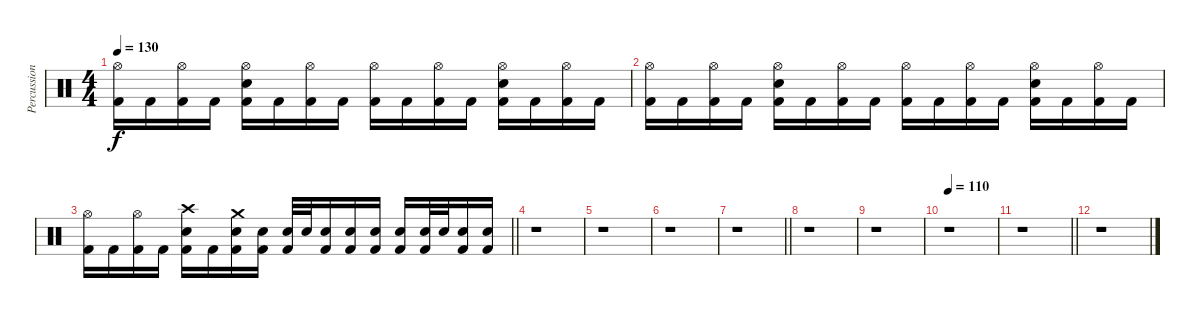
\track ("Percussion" "Percussion") {instrument percussion}
\staff {score}
\articulation defaults
\ts (4 4)
\tempo 130
\clef neutral
\ks c
("Hi-Hat (open)" "Kick (hit) 2").16{dy f} "Kick (hit) 2".16 ("Hi-Hat (open)" "Kick (hit) 2").16 "Kick (hit) 2".16 ("Hi-Hat (open)" "Electric Snare (hit)" "Kick (hit) 2").16 "Kick (hit) 2".16 ("Hi-Hat (open)" "Kick (hit) 2").16 "Kick (hit) 2".16 ("Hi-Hat (open)" "Kick (hit) 2").16 "Kick (hit) 2".16 ("Hi-Hat (open)" "Kick (hit) 2").16 "Kick (hit) 2".16 ("Hi-Hat (open)" "Electric Snare (hit)" "Kick (hit) 2").16 "Kick (hit) 2".16 ("Hi-Hat (open)" "Kick (hit) 2").16 "Kick (hit) 2".16 |
("Hi-Hat (open)" "Kick (hit) 2").16 "Kick (hit) 2".16 ("Hi-Hat (open)" "Kick (hit) 2").16 "Kick (hit) 2".16 ("Hi-Hat (open)" "Electric Snare (hit)" "Kick (hit) 2").16 "Kick (hit) 2".16 ("Hi-Hat (open)" "Kick (hit) 2").16 "Kick (hit) 2".16 ("Hi-Hat (open)" "Kick (hit) 2").16 "Kick (hit) 2".16 ("Hi-Hat (open)" "Kick (hit) 2").16 "Kick (hit) 2".16 ("Hi-Hat (open)" "Electric Snare (hit)" "Kick (hit) 2").16 "Kick (hit) 2".16 ("Hi-Hat (open)" "Kick (hit) 2").16 "Kick (hit) 2".16 |
\barLineRight lightlight
("Hi-Hat (open)" "Kick (hit) 2").16 "Kick (hit) 2".16 ("Hi-Hat (open)" "Kick (hit) 2").16 "Kick (hit) 2".16 ("Crash high (hit)" "Electric Snare (hit)" "Kick (hit) 2").16 "Kick (hit) 2".16 ("Crash medium (hit)" "Electric Snare (hit)" "Kick (hit) 2").16 ("Electric Snare (hit)" "Kick (hit) 2").16 ("Electric Snare (hit)" "Kick (hit) 2").32 "Electric Snare (hit)".32 ("Electric Snare (hit)" "Kick (hit) 2").16 ("Electric Snare (hit)" "Kick (hit) 2").16 ("Electric Snare (hit)" "Kick (hit) 2").16 ("Electric Snare (hit)" "Kick (hit) 2").16 ("Electric Snare (hit)" "Kick (hit) 2").32 "Electric Snare (hit)".32 ("Electric Snare (hit)" "Kick (hit) 2").16 ("Electric Snare (hit)" "Kick (hit) 2").16 |
r.1 |
r.1 |
r.1 |
\barLineRight lightlight
r.1 |
r.1 |
r.1 |
\tempo 110
r.1 |
\barLineRight lightlight
r.1 |
r.1
